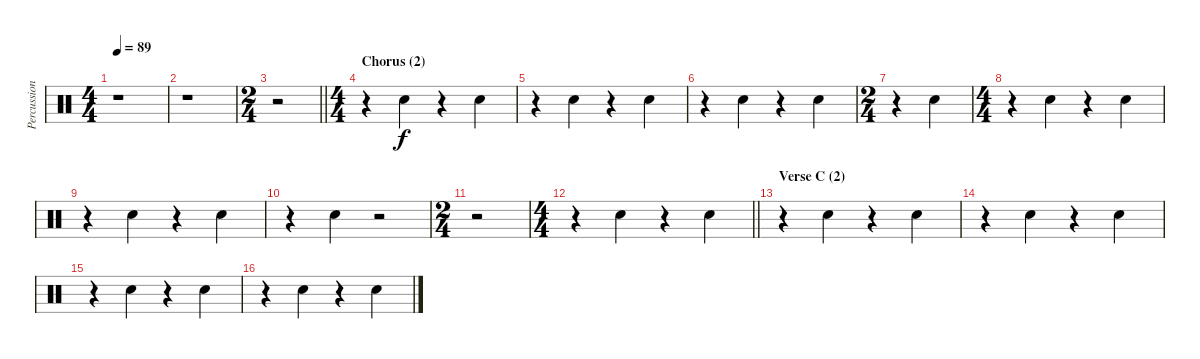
\track ("Percussion" "Percussion") {instrument percussion}
\staff {score}
\articulation defaults
\ts (4 4)
\tempo 89
\clef neutral
\ks c
r.1{dy f} |
r.1 |
\ts (2 4)
\barLineRight lightlight
r.2 |
\ts (4 4)
\section ("" "Chorus (2)")
r.4 "Hand Clap (hit)".4 r.4 "Hand Clap (hit)".4 |
r.4 "Hand Clap (hit)".4 r.4 "Hand Clap (hit)".4 |
r.4 "Hand Clap (hit)".4 r.4 "Hand Clap (hit)".4 |
\ts (2 4)
r.4 "Hand Clap (hit)".4 |
\ts (4 4)
r.4 "Hand Clap (hit)".4 r.4 "Hand Clap (hit)".4 |
r.4 "Hand Clap (hit)".4 r.4 "Hand Clap (hit)".4 |
r.4 "Hand Clap (hit)".4 r.2 |
\ts (2 4)
r.2 |
\ts (4 4)
\barLineRight lightlight
r.4 "Hand Clap (hit)".4 r.4 "Hand Clap (hit)".4 |
\section ("" "Verse C (2)")
r.4 "Hand Clap (hit)".4 r.4 "Hand Clap (hit)".4 |
r.4 "Hand Clap (hit)".4 r.4 "Hand Clap (hit)".4 |
r.4 "Hand Clap (hit)".4 r.4 "Hand Clap (hit)".4 |
r.4 "Hand Clap (hit)".4 r.4 "Hand Clap (hit)".4
